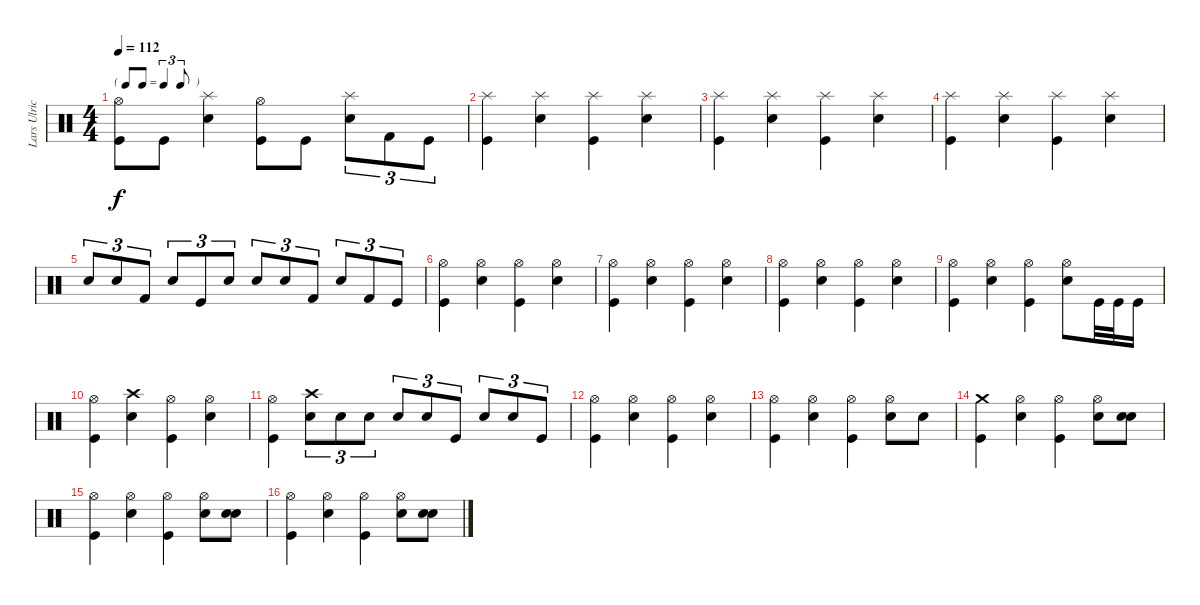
\track ("Lars Ulrich (Drums)" "Lars Ulric") {instrument percussion}
\staff {score}
\articulation defaults
\ts (4 4)
\tf triplet8th
\tempo 112
\clef neutral
\ks c
("Hi-Hat (open)" "Kick (hit)").8{dy f} "Kick (hit)".8 ("Splash (hit)" "Electric Snare (hit)").4 ("Hi-Hat (open)" "Kick (hit)").8 "Kick (hit)".8 ("Splash (hit)" "Electric Snare (hit)").8{tu (3 2)} "Kick (hit) 2".8{tu (3 2)} "Kick (hit)".8{tu (3 2)} |
("Splash (hit)" "Kick (hit)").4 ("Splash (hit)" "Electric Snare (hit)").4 ("Splash (hit)" "Kick (hit)").4 ("Splash (hit)" "Electric Snare (hit)").4 |
("Splash (hit)" "Kick (hit)").4 ("Splash (hit)" "Electric Snare (hit)").4 ("Splash (hit)" "Kick (hit)").4 ("Splash (hit)" "Electric Snare (hit)").4 |
("Splash (hit)" "Kick (hit)").4 ("Splash (hit)" "Electric Snare (hit)").4 ("Splash (hit)" "Kick (hit)").4 ("Splash (hit)" "Electric Snare (hit)").4 |
"Electric Snare (hit)".8{tu (3 2)} "Snare (hit) 2".8{tu (3 2)} "Kick (hit) 2".8{tu (3 2)} "Electric Snare (hit)".8{tu (3 2)} "Kick (hit)".8{tu (3 2)} "Snare (hit) 2".8{tu (3 2)} "Electric Snare (hit)".8{tu (3 2)} "Electric Snare (hit)".8{tu (3 2)} "Kick (hit) 2".8{tu (3 2)} "Snare (hit) 2".8{tu (3 2)} "Kick (hit) 2".8{tu (3 2)} "Kick (hit)".8{tu (3 2)} |
("Hi-Hat (open)" "Kick (hit)").4 ("Hi-Hat (open)" "Electric Snare (hit)").4 ("Hi-Hat (open)" "Kick (hit)").4 ("Hi-Hat (open)" "Electric Snare (hit)").4 |
("Hi-Hat (open)" "Kick (hit)").4 ("Hi-Hat (open)" "Electric Snare (hit)").4 ("Hi-Hat (open)" "Kick (hit)").4 ("Hi-Hat (open)" "Electric Snare (hit)").4 |
("Hi-Hat (open)" "Kick (hit)").4 ("Hi-Hat (open)" "Electric Snare (hit)").4 ("Hi-Hat (open)" "Kick (hit)").4 ("Hi-Hat (open)" "Electric Snare (hit)").4 |
("Hi-Hat (open)" "Kick (hit)").4 ("Hi-Hat (open)" "Electric Snare (hit)").4 ("Hi-Hat (open)" "Kick (hit)").4 ("Hi-Hat (open)" "Electric Snare (hit)").8 "Kick (hit)".32 "Kick (hit)".32 "Kick (hit)".16 |
("Hi-Hat (open)" "Kick (hit)").4 ("Crash high (hit)" "Electric Snare (hit)").4 ("Hi-Hat (open)" "Kick (hit)").4 ("Hi-Hat (open)" "Electric Snare (hit)").4 |
("Hi-Hat (open)" "Kick (hit)").4 ("Crash high (hit)" "Electric Snare (hit)").8{tu (3 2)} "Electric Snare (hit)".8{tu (3 2)} "Electric Snare (hit)".8{tu (3 2)} "Snare (hit) 2".8{tu (3 2)} "Snare (hit) 2".8{tu (3 2)} "Kick (hit)".8{tu (3 2)} "Electric Snare (hit)".8{tu (3 2)} "Snare (hit) 2".8{tu (3 2)} "Kick (hit)".8{tu (3 2)} |
("Hi-Hat (open)" "Kick (hit)").4 ("Hi-Hat (open)" "Electric Snare (hit)").4 ("Hi-Hat (open)" "Kick (hit)").4 ("Hi-Hat (open)" "Electric Snare (hit)").4 |
("Hi-Hat (open)" "Kick (hit)").4 ("Hi-Hat (open)" "Electric Snare (hit)").4 ("Hi-Hat (open)" "Kick (hit)").4 ("Hi-Hat (open)" "Electric Snare (hit)").8 "Electric Snare (hit)".8 |
("Crash medium (hit)" "Kick (hit)").4 ("Hi-Hat (open)" "Electric Snare (hit)").4 ("Hi-Hat (open)" "Kick (hit)").4 ("Hi-Hat (open)" "Electric Snare (hit)").8 ("Electric Snare (hit)" "Snare (hit) 2").8 |
("Hi-Hat (open)" "Kick (hit)").4 ("Hi-Hat (open)" "Electric Snare (hit)").4 ("Hi-Hat (open)" "Kick (hit)").4 ("Hi-Hat (open)" "Electric Snare (hit)").8 ("Electric Snare (hit)" "Snare (hit) 2").8 |
("Hi-Hat (open)" "Kick (hit)").4 ("Hi-Hat (open)" "Electric Snare (hit)").4 ("Hi-Hat (open)" "Kick (hit)").4 ("Hi-Hat (open)" "Electric Snare (hit)").8 ("Electric Snare (hit)" "Snare (hit) 2").8
